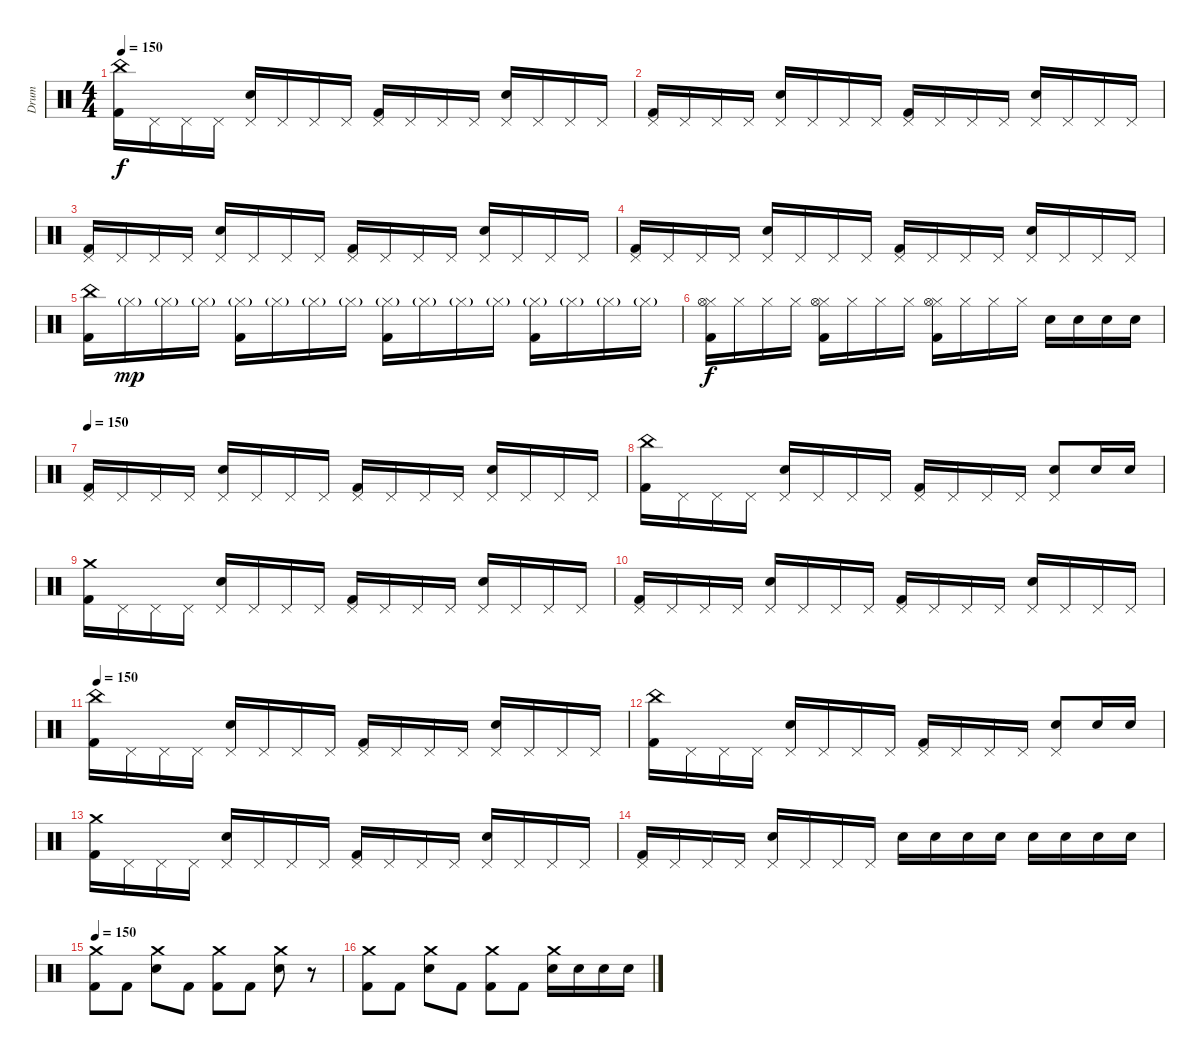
\track ("Drum" "Drum") {instrument percussion}
\staff {score}
\articulation defaults
\ts (4 4)
\tempo 150
\clef neutral
\ks c
("China (hit)" "Kick (hit) 2").16{dy f} "Pedal Hi-Hat (hit)".16 "Pedal Hi-Hat (hit)".16 "Pedal Hi-Hat (hit)".16 ("Pedal Hi-Hat (hit)" "Electric Snare (hit)").16 "Pedal Hi-Hat (hit)".16 "Pedal Hi-Hat (hit)".16 "Pedal Hi-Hat (hit)".16 ("Pedal Hi-Hat (hit)" "Kick (hit) 2").16 "Pedal Hi-Hat (hit)".16 "Pedal Hi-Hat (hit)".16 "Pedal Hi-Hat (hit)".16 ("Pedal Hi-Hat (hit)" "Electric Snare (hit)").16 "Pedal Hi-Hat (hit)".16 "Pedal Hi-Hat (hit)".16 "Pedal Hi-Hat (hit)".16 |
("Pedal Hi-Hat (hit)" "Kick (hit) 2").16 "Pedal Hi-Hat (hit)".16 "Pedal Hi-Hat (hit)".16 "Pedal Hi-Hat (hit)".16 ("Pedal Hi-Hat (hit)" "Electric Snare (hit)").16 "Pedal Hi-Hat (hit)".16 "Pedal Hi-Hat (hit)".16 "Pedal Hi-Hat (hit)".16 ("Pedal Hi-Hat (hit)" "Kick (hit) 2").16 "Pedal Hi-Hat (hit)".16 "Pedal Hi-Hat (hit)".16 "Pedal Hi-Hat (hit)".16 ("Pedal Hi-Hat (hit)" "Electric Snare (hit)").16 "Pedal Hi-Hat (hit)".16 "Pedal Hi-Hat (hit)".16 "Pedal Hi-Hat (hit)".16 |
("Pedal Hi-Hat (hit)" "Kick (hit) 2").16 "Pedal Hi-Hat (hit)".16 "Pedal Hi-Hat (hit)".16 "Pedal Hi-Hat (hit)".16 ("Pedal Hi-Hat (hit)" "Electric Snare (hit)").16 "Pedal Hi-Hat (hit)".16 "Pedal Hi-Hat (hit)".16 "Pedal Hi-Hat (hit)".16 ("Pedal Hi-Hat (hit)" "Kick (hit) 2").16 "Pedal Hi-Hat (hit)".16 "Pedal Hi-Hat (hit)".16 "Pedal Hi-Hat (hit)".16 ("Pedal Hi-Hat (hit)" "Electric Snare (hit)").16 "Pedal Hi-Hat (hit)".16 "Pedal Hi-Hat (hit)".16 "Pedal Hi-Hat (hit)".16 |
("Pedal Hi-Hat (hit)" "Kick (hit) 2").16 "Pedal Hi-Hat (hit)".16 "Pedal Hi-Hat (hit)".16 "Pedal Hi-Hat (hit)".16 ("Pedal Hi-Hat (hit)" "Electric Snare (hit)").16 "Pedal Hi-Hat (hit)".16 "Pedal Hi-Hat (hit)".16 "Pedal Hi-Hat (hit)".16 ("Pedal Hi-Hat (hit)" "Kick (hit) 2").16 "Pedal Hi-Hat (hit)".16 "Pedal Hi-Hat (hit)".16 "Pedal Hi-Hat (hit)".16 ("Pedal Hi-Hat (hit)" "Electric Snare (hit)").16 "Pedal Hi-Hat (hit)".16 "Pedal Hi-Hat (hit)".16 "Pedal Hi-Hat (hit)".16 |
("China (hit)" "Kick (hit) 2").16 "Hi-Hat (closed)"{g}.16{dy mp} "Hi-Hat (closed)"{g}.16 "Hi-Hat (closed)"{g}.16 ("Hi-Hat (closed)"{g} "Kick (hit) 2").16 "Hi-Hat (closed)"{g}.16 "Hi-Hat (closed)"{g}.16 "Hi-Hat (closed)"{g}.16 ("Hi-Hat (closed)"{g} "Kick (hit) 2").16 "Hi-Hat (closed)"{g}.16 "Hi-Hat (closed)"{g}.16 "Hi-Hat (closed)"{g}.16 ("Hi-Hat (closed)"{g} "Kick (hit) 2").16 "Hi-Hat (closed)"{g}.16 "Hi-Hat (closed)"{g}.16 "Hi-Hat (closed)"{g}.16 |
("Hi-Hat (closed)" "Hi-Hat (open)" "Kick (hit) 2").16{dy f volume 7} "Hi-Hat (closed)".16 "Hi-Hat (closed)".16{volume 9} "Hi-Hat (closed)".16 ("Hi-Hat (closed)" "Hi-Hat (open)" "Kick (hit) 2").16{volume 9} "Hi-Hat (closed)".16 "Hi-Hat (closed)".16{volume 12} "Hi-Hat (closed)".16 ("Hi-Hat (closed)" "Hi-Hat (open)" "Kick (hit) 2").16 "Hi-Hat (closed)".16{volume 13} "Hi-Hat (closed)".16 "Hi-Hat (closed)".16 "Electric Snare (hit)".16 "Electric Snare (hit)".16 "Electric Snare (hit)".16 "Electric Snare (hit)".16 |
\tempo 150
("Pedal Hi-Hat (hit)" "Kick (hit) 2").16 "Pedal Hi-Hat (hit)".16 "Pedal Hi-Hat (hit)".16 "Pedal Hi-Hat (hit)".16 ("Pedal Hi-Hat (hit)" "Electric Snare (hit)").16 "Pedal Hi-Hat (hit)".16 "Pedal Hi-Hat (hit)".16 "Pedal Hi-Hat (hit)".16 ("Pedal Hi-Hat (hit)" "Kick (hit) 2").16 "Pedal Hi-Hat (hit)".16 "Pedal Hi-Hat (hit)".16 "Pedal Hi-Hat (hit)".16 ("Pedal Hi-Hat (hit)" "Electric Snare (hit)").16 "Pedal Hi-Hat (hit)".16 "Pedal Hi-Hat (hit)".16 "Pedal Hi-Hat (hit)".16 |
("China (hit)" "Kick (hit) 2").16 "Pedal Hi-Hat (hit)".16 "Pedal Hi-Hat (hit)".16 "Pedal Hi-Hat (hit)".16 ("Pedal Hi-Hat (hit)" "Electric Snare (hit)").16 "Pedal Hi-Hat (hit)".16 "Pedal Hi-Hat (hit)".16 "Pedal Hi-Hat (hit)".16 ("Pedal Hi-Hat (hit)" "Kick (hit) 2").16 "Pedal Hi-Hat (hit)".16 "Pedal Hi-Hat (hit)".16 "Pedal Hi-Hat (hit)".16 ("Pedal Hi-Hat (hit)" "Electric Snare (hit)").8 "Electric Snare (hit)".16 "Electric Snare (hit)".16 |
("Crash medium (hit)" "Kick (hit) 2").16 "Pedal Hi-Hat (hit)".16 "Pedal Hi-Hat (hit)".16 "Pedal Hi-Hat (hit)".16 ("Pedal Hi-Hat (hit)" "Electric Snare (hit)").16 "Pedal Hi-Hat (hit)".16 "Pedal Hi-Hat (hit)".16 "Pedal Hi-Hat (hit)".16 ("Pedal Hi-Hat (hit)" "Kick (hit) 2").16 "Pedal Hi-Hat (hit)".16 "Pedal Hi-Hat (hit)".16 "Pedal Hi-Hat (hit)".16 ("Pedal Hi-Hat (hit)" "Electric Snare (hit)").16 "Pedal Hi-Hat (hit)".16 "Pedal Hi-Hat (hit)".16 "Pedal Hi-Hat (hit)".16 |
("Pedal Hi-Hat (hit)" "Kick (hit) 2").16 "Pedal Hi-Hat (hit)".16 "Pedal Hi-Hat (hit)".16 "Pedal Hi-Hat (hit)".16 ("Pedal Hi-Hat (hit)" "Electric Snare (hit)").16 "Pedal Hi-Hat (hit)".16 "Pedal Hi-Hat (hit)".16 "Pedal Hi-Hat (hit)".16 ("Pedal Hi-Hat (hit)" "Kick (hit) 2").16 "Pedal Hi-Hat (hit)".16 "Pedal Hi-Hat (hit)".16 "Pedal Hi-Hat (hit)".16 ("Pedal Hi-Hat (hit)" "Electric Snare (hit)").16 "Pedal Hi-Hat (hit)".16 "Pedal Hi-Hat (hit)".16 "Pedal Hi-Hat (hit)".16 |
\tempo 150
("China (hit)" "Kick (hit) 2").16 "Pedal Hi-Hat (hit)".16 "Pedal Hi-Hat (hit)".16 "Pedal Hi-Hat (hit)".16 ("Pedal Hi-Hat (hit)" "Electric Snare (hit)").16 "Pedal Hi-Hat (hit)".16 "Pedal Hi-Hat (hit)".16 "Pedal Hi-Hat (hit)".16 ("Pedal Hi-Hat (hit)" "Kick (hit) 2").16 "Pedal Hi-Hat (hit)".16 "Pedal Hi-Hat (hit)".16 "Pedal Hi-Hat (hit)".16 ("Pedal Hi-Hat (hit)" "Electric Snare (hit)").16 "Pedal Hi-Hat (hit)".16 "Pedal Hi-Hat (hit)".16 "Pedal Hi-Hat (hit)".16 |
("China (hit)" "Kick (hit) 2").16 "Pedal Hi-Hat (hit)".16 "Pedal Hi-Hat (hit)".16 "Pedal Hi-Hat (hit)".16 ("Pedal Hi-Hat (hit)" "Electric Snare (hit)").16 "Pedal Hi-Hat (hit)".16 "Pedal Hi-Hat (hit)".16 "Pedal Hi-Hat (hit)".16 ("Pedal Hi-Hat (hit)" "Kick (hit) 2").16 "Pedal Hi-Hat (hit)".16 "Pedal Hi-Hat (hit)".16 "Pedal Hi-Hat (hit)".16 ("Pedal Hi-Hat (hit)" "Electric Snare (hit)").8 "Electric Snare (hit)".16 "Electric Snare (hit)".16 |
("Crash medium (hit)" "Kick (hit) 2").16 "Pedal Hi-Hat (hit)".16 "Pedal Hi-Hat (hit)".16 "Pedal Hi-Hat (hit)".16 ("Pedal Hi-Hat (hit)" "Electric Snare (hit)").16 "Pedal Hi-Hat (hit)".16 "Pedal Hi-Hat (hit)".16 "Pedal Hi-Hat (hit)".16 ("Pedal Hi-Hat (hit)" "Kick (hit) 2").16 "Pedal Hi-Hat (hit)".16 "Pedal Hi-Hat (hit)".16 "Pedal Hi-Hat (hit)".16 ("Pedal Hi-Hat (hit)" "Electric Snare (hit)").16 "Pedal Hi-Hat (hit)".16 "Pedal Hi-Hat (hit)".16 "Pedal Hi-Hat (hit)".16 |
("Pedal Hi-Hat (hit)" "Kick (hit) 2").16 "Pedal Hi-Hat (hit)".16 "Pedal Hi-Hat (hit)".16 "Pedal Hi-Hat (hit)".16 ("Pedal Hi-Hat (hit)" "Electric Snare (hit)").16 "Pedal Hi-Hat (hit)".16 "Pedal Hi-Hat (hit)".16 "Pedal Hi-Hat (hit)".16 "Electric Snare (hit)".16 "Electric Snare (hit)".16 "Electric Snare (hit)".16 "Electric Snare (hit)".16 "Electric Snare (hit)".16 "Electric Snare (hit)".16 "Electric Snare (hit)".16 "Electric Snare (hit)".16 |
\tempo 150
("Crash medium (hit)" "Kick (hit) 2").8 "Kick (hit) 2".8 ("Crash medium (hit)" "Electric Snare (hit)").8 "Kick (hit) 2".8 ("Crash medium (hit)" "Kick (hit) 2").8 "Kick (hit) 2".8 ("Crash medium (hit)" "Electric Snare (hit)").8 r.8 |
("Crash medium (hit)" "Kick (hit) 2").8 "Kick (hit) 2".8 ("Crash medium (hit)" "Electric Snare (hit)").8 "Kick (hit) 2".8 ("Crash medium (hit)" "Kick (hit) 2").8 "Kick (hit) 2".8 ("Crash medium (hit)" "Electric Snare (hit)").16 "Electric Snare (hit)".16 "Electric Snare (hit)".16 "Electric Snare (hit)".16
